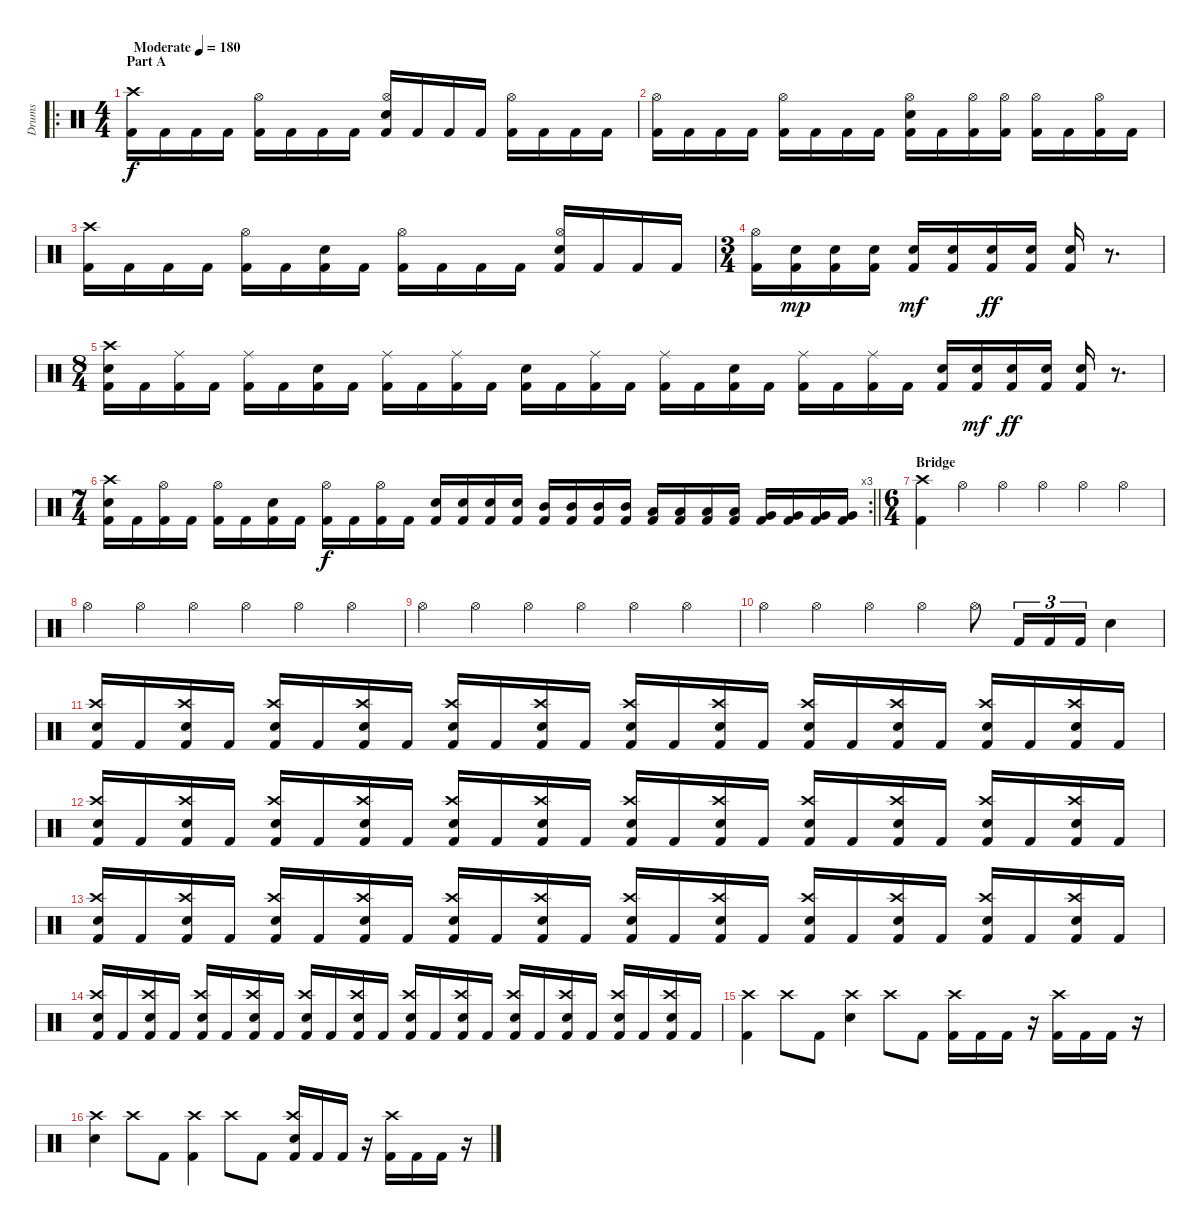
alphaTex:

\track ("Drums" "Drums") {instrument percussion}
\staff {score}
\articulation defaults
\ro
\ts (4 4)
\section ("" "Part A")
\tempo (180 "Moderate")
\clef neutral
\ks c
("Kick (hit) 2" "Crash high (hit)").16{dy f} "Kick (hit) 2".16 "Kick (hit) 2".16 "Kick (hit) 2".16 ("Kick (hit) 2" "Hi-Hat (open)").16 "Kick (hit) 2".16 "Kick (hit) 2".16 "Kick (hit) 2".16 ("Kick (hit) 2" "Hi-Hat (open)" "Snare (hit) 2").16 "Kick (hit) 2".16 "Kick (hit) 2".16 "Kick (hit) 2".16 ("Kick (hit) 2" "Hi-Hat (open)").16 "Kick (hit) 2".16 "Kick (hit) 2".16 "Kick (hit) 2".16 |
("Kick (hit) 2" "Hi-Hat (open)").16 "Kick (hit) 2".16 "Kick (hit) 2".16 "Kick (hit) 2".16 ("Kick (hit) 2" "Hi-Hat (open)").16 "Kick (hit) 2".16 "Kick (hit) 2".16 "Kick (hit) 2".16 ("Kick (hit) 2" "Hi-Hat (open)" "Snare (hit) 2").16 "Kick (hit) 2".16 ("Kick (hit) 2" "Hi-Hat (open)").16 ("Kick (hit) 2" "Hi-Hat (open)").16 ("Kick (hit) 2" "Hi-Hat (open)").16 "Kick (hit) 2".16 ("Kick (hit) 2" "Hi-Hat (open)").16 "Kick (hit) 2".16 |
("Kick (hit) 2" "Crash high (hit)").16 "Kick (hit) 2".16 "Kick (hit) 2".16 "Kick (hit) 2".16 ("Kick (hit) 2" "Hi-Hat (open)").16 "Kick (hit) 2".16 ("Kick (hit) 2" "Snare (hit) 2").16 "Kick (hit) 2".16 ("Kick (hit) 2" "Hi-Hat (open)").16 "Kick (hit) 2".16 "Kick (hit) 2".16 "Kick (hit) 2".16 ("Kick (hit) 2" "Hi-Hat (open)" "Snare (hit) 2").16 "Kick (hit) 2".16 "Kick (hit) 2".16 "Kick (hit) 2".16 |
\ts (3 4)
("Kick (hit) 2" "Hi-Hat (open)").16 ("Kick (hit) 2" "Snare (hit) 2").16{dy mp} ("Kick (hit) 2" "Snare (hit) 2").16 ("Kick (hit) 2" "Snare (hit) 2").16 ("Kick (hit) 2" "Snare (hit) 2").16{dy mf} ("Kick (hit) 2" "Snare (hit) 2").16 ("Kick (hit) 2" "Snare (hit) 2").16{dy ff} ("Kick (hit) 2" "Snare (hit) 2").16 ("Kick (hit) 2" "Snare (hit) 2").16 r.8{d} |
\ts (8 4)
("Crash high (hit)" "Kick (hit) 2" "Snare (hit) 2").16 "Kick (hit) 2".16 ("Kick (hit) 2" "Ride (middle)").16 "Kick (hit) 2".16 ("Kick (hit) 2" "Ride (middle)").16 "Kick (hit) 2".16 ("Kick (hit) 2" "Snare (hit) 2").16 "Kick (hit) 2".16 ("Kick (hit) 2" "Ride (middle)").16 "Kick (hit) 2".16 ("Kick (hit) 2" "Ride (middle)").16 "Kick (hit) 2".16 ("Kick (hit) 2" "Snare (hit) 2").16 "Kick (hit) 2".16 ("Kick (hit) 2" "Ride (middle)").16 "Kick (hit) 2".16 ("Kick (hit) 2" "Ride (middle)").16 "Kick (hit) 2".16 ("Kick (hit) 2" "Snare (hit) 2").16 "Kick (hit) 2".16 ("Kick (hit) 2" "Ride (middle)").16 "Kick (hit) 2".16 ("Kick (hit) 2" "Ride (middle)").16 "Kick (hit) 2".16 ("Snare (hit) 2" "Kick (hit) 2").16 ("Kick (hit) 2" "Snare (hit) 2").16{dy mf} ("Kick (hit) 2" "Snare (hit) 2").16{dy ff} ("Kick (hit) 2" "Snare (hit) 2").16 ("Kick (hit) 2" "Snare (hit) 2").16 r.8{d} |
\rc 3
\ts (7 4)
\barLineRight lightlight
("Crash high (hit)" "Kick (hit) 2" "Snare (hit) 2").16 "Kick (hit) 2".16 ("Kick (hit) 2" "Hi-Hat (open)").16 "Kick (hit) 2".16 ("Kick (hit) 2" "Hi-Hat (open)").16 "Kick (hit) 2".16 ("Kick (hit) 2" "Snare (hit) 2").16 "Kick (hit) 2".16 ("Kick (hit) 2" "Hi-Hat (open)").16{dy f} "Kick (hit) 2".16 ("Kick (hit) 2" "Hi-Hat (open)").16 "Kick (hit) 2".16 ("Kick (hit) 2" "Snare (hit) 2").16 ("Kick (hit) 2" "Snare (hit) 2").16 ("Kick (hit) 2" "Snare (hit) 2").16 ("Kick (hit) 2" "Snare (hit) 2").16 ("Kick (hit) 2" "Mid Tom (hit)").16 ("Kick (hit) 2" "Mid Tom (hit)").16 ("Kick (hit) 2" "Mid Tom (hit)").16 ("Kick (hit) 2" "Mid Tom (hit)").16 ("Kick (hit) 2" "Low Tom (hit)").16 ("Kick (hit) 2" "Low Tom (hit)").16 ("Kick (hit) 2" "Low Tom (hit)").16 ("Kick (hit) 2" "Low Tom (hit)").16 ("Kick (hit) 2" "Very Low Tom (hit)").16 ("Kick (hit) 2" "Very Low Tom (hit)").16 ("Kick (hit) 2" "Very Low Tom (hit)").16 ("Kick (hit) 2" "Very Low Tom (hit)").16 |
\ts (6 4)
\section ("" "Bridge")
("Kick (hit) 2" "Crash high (hit)").4 "Hi-Hat (open)".4 "Hi-Hat (open)".4 "Hi-Hat (open)".4 "Hi-Hat (open)".4 "Hi-Hat (open)".4 |
"Hi-Hat (open)".4 "Hi-Hat (open)".4 "Hi-Hat (open)".4 "Hi-Hat (open)".4 "Hi-Hat (open)".4 "Hi-Hat (open)".4 |
"Hi-Hat (open)".4 "Hi-Hat (open)".4 "Hi-Hat (open)".4 "Hi-Hat (open)".4 "Hi-Hat (open)".4 "Hi-Hat (open)".4 |
"Hi-Hat (open)".4 "Hi-Hat (open)".4 "Hi-Hat (open)".4 "Hi-Hat (open)".4 "Hi-Hat (open)".8 "Kick (hit) 2".16{tu (3 2)} "Kick (hit) 2".16{tu (3 2)} "Kick (hit) 2".16{tu (3 2)} "Snare (hit) 2".4 |
("Kick (hit) 2" "Snare (hit) 2" "Crash high (hit)").16 "Kick (hit) 2".16 ("Kick (hit) 2" "Snare (hit) 2" "Crash high (hit)").16 "Kick (hit) 2".16 ("Kick (hit) 2" "Snare (hit) 2" "Crash high (hit)").16 "Kick (hit) 2".16 ("Kick (hit) 2" "Snare (hit) 2" "Crash high (hit)").16 "Kick (hit) 2".16 ("Kick (hit) 2" "Snare (hit) 2" "Crash high (hit)").16 "Kick (hit) 2".16 ("Kick (hit) 2" "Snare (hit) 2" "Crash high (hit)").16 "Kick (hit) 2".16 ("Kick (hit) 2" "Snare (hit) 2" "Crash high (hit)").16 "Kick (hit) 2".16 ("Kick (hit) 2" "Snare (hit) 2" "Crash high (hit)").16 "Kick (hit) 2".16 ("Kick (hit) 2" "Snare (hit) 2" "Crash high (hit)").16 "Kick (hit) 2".16 ("Kick (hit) 2" "Snare (hit) 2" "Crash high (hit)").16 "Kick (hit) 2".16 ("Kick (hit) 2" "Snare (hit) 2" "Crash high (hit)").16 "Kick (hit) 2".16 ("Kick (hit) 2" "Snare (hit) 2" "Crash high (hit)").16 "Kick (hit) 2".16 |
("Kick (hit) 2" "Snare (hit) 2" "Crash high (hit)").16 "Kick (hit) 2".16 ("Kick (hit) 2" "Snare (hit) 2" "Crash high (hit)").16 "Kick (hit) 2".16 ("Kick (hit) 2" "Snare (hit) 2" "Crash high (hit)").16 "Kick (hit) 2".16 ("Kick (hit) 2" "Snare (hit) 2" "Crash high (hit)").16 "Kick (hit) 2".16 ("Kick (hit) 2" "Snare (hit) 2" "Crash high (hit)").16 "Kick (hit) 2".16 ("Kick (hit) 2" "Snare (hit) 2" "Crash high (hit)").16 "Kick (hit) 2".16 ("Kick (hit) 2" "Snare (hit) 2" "Crash high (hit)").16 "Kick (hit) 2".16 ("Kick (hit) 2" "Snare (hit) 2" "Crash high (hit)").16 "Kick (hit) 2".16 ("Kick (hit) 2" "Snare (hit) 2" "Crash high (hit)").16 "Kick (hit) 2".16 ("Kick (hit) 2" "Snare (hit) 2" "Crash high (hit)").16 "Kick (hit) 2".16 ("Kick (hit) 2" "Snare (hit) 2" "Crash high (hit)").16 "Kick (hit) 2".16 ("Kick (hit) 2" "Snare (hit) 2" "Crash high (hit)").16 "Kick (hit) 2".16 |
("Kick (hit) 2" "Snare (hit) 2" "Crash high (hit)").16 "Kick (hit) 2".16 ("Kick (hit) 2" "Snare (hit) 2" "Crash high (hit)").16 "Kick (hit) 2".16 ("Kick (hit) 2" "Snare (hit) 2" "Crash high (hit)").16 "Kick (hit) 2".16 ("Kick (hit) 2" "Snare (hit) 2" "Crash high (hit)").16 "Kick (hit) 2".16 ("Kick (hit) 2" "Snare (hit) 2" "Crash high (hit)").16 "Kick (hit) 2".16 ("Kick (hit) 2" "Snare (hit) 2" "Crash high (hit)").16 "Kick (hit) 2".16 ("Kick (hit) 2" "Snare (hit) 2" "Crash high (hit)").16 "Kick (hit) 2".16 ("Kick (hit) 2" "Snare (hit) 2" "Crash high (hit)").16 "Kick (hit) 2".16 ("Kick (hit) 2" "Snare (hit) 2" "Crash high (hit)").16 "Kick (hit) 2".16 ("Kick (hit) 2" "Snare (hit) 2" "Crash high (hit)").16 "Kick (hit) 2".16 ("Kick (hit) 2" "Snare (hit) 2" "Crash high (hit)").16 "Kick (hit) 2".16 ("Kick (hit) 2" "Snare (hit) 2" "Crash high (hit)").16 "Kick (hit) 2".16 |
("Kick (hit) 2" "Snare (hit) 2" "Crash high (hit)").16 "Kick (hit) 2".16 ("Kick (hit) 2" "Snare (hit) 2" "Crash high (hit)").16 "Kick (hit) 2".16 ("Kick (hit) 2" "Snare (hit) 2" "Crash high (hit)").16 "Kick (hit) 2".16 ("Kick (hit) 2" "Snare (hit) 2" "Crash high (hit)").16 "Kick (hit) 2".16 ("Kick (hit) 2" "Snare (hit) 2" "Crash high (hit)").16 "Kick (hit) 2".16 ("Kick (hit) 2" "Snare (hit) 2" "Crash high (hit)").16 "Kick (hit) 2".16 ("Kick (hit) 2" "Snare (hit) 2" "Crash high (hit)").16 "Kick (hit) 2".16 ("Kick (hit) 2" "Snare (hit) 2" "Crash high (hit)").16 "Kick (hit) 2".16 ("Kick (hit) 2" "Snare (hit) 2" "Crash high (hit)").16 "Kick (hit) 2".16 ("Kick (hit) 2" "Snare (hit) 2" "Crash high (hit)").16 "Kick (hit) 2".16 ("Kick (hit) 2" "Snare (hit) 2" "Crash high (hit)").16 "Kick (hit) 2".16 ("Kick (hit) 2" "Snare (hit) 2" "Crash high (hit)").16 "Kick (hit) 2".16 |
("Kick (hit) 2" "Crash high (hit)").4 "Crash high (hit)".8 "Kick (hit) 2".8 ("Crash high (hit)" "Snare (hit) 2").4 "Crash high (hit)".8 "Kick (hit) 2".8 ("Kick (hit) 2" "Crash high (hit)").16 "Kick (hit) 2".16 "Kick (hit) 2".16 r.16 ("Kick (hit) 2" "Crash high (hit)").16 "Kick (hit) 2".16 "Kick (hit) 2".16 r.16 |
("Crash high (hit)" "Snare (hit) 2").4 "Crash high (hit)".8 "Kick (hit) 2".8 ("Kick (hit) 2" "Crash high (hit)").4 "Crash high (hit)".8 "Kick (hit) 2".8 ("Crash high (hit)" "Snare (hit) 2" "Kick (hit) 2").16 "Kick (hit) 2".16 "Kick (hit) 2".16 r.16 ("Kick (hit) 2" "Crash high (hit)").16 "Kick (hit) 2".16 "Kick (hit) 2".16 r.16
